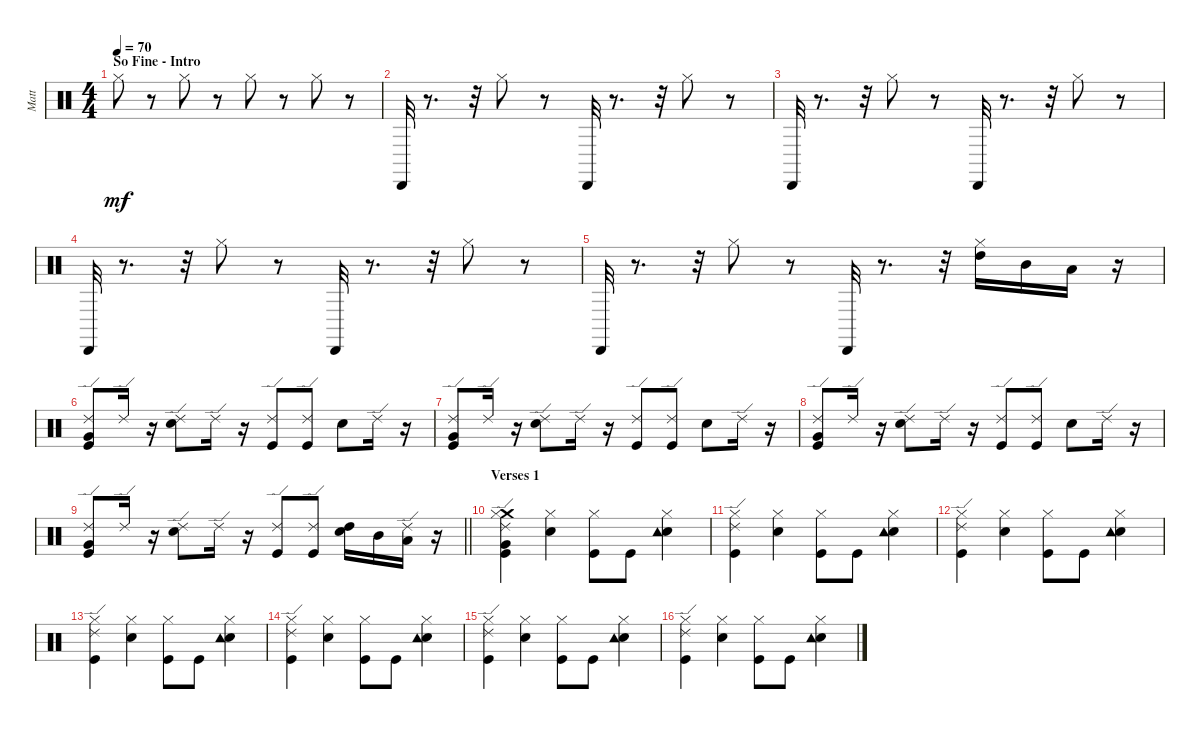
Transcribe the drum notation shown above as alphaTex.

\track ("Matt" "Matt") {instrument percussion}
\staff {score}
\articulation defaults
\ts (4 4)
\section ("" "So Fine - Intro")
\tempo 70
\clef neutral
\ks c "Hi-Hat (closed)".8{dy mf}
r.8 "Hi-Hat (closed)".8 r.8 "Hi-Hat (closed)".8 r.8 "Hi-Hat (closed)".8 r.8 |
"Cabasa (hit)".32 r.8{d} r.32 "Hi-Hat (closed)".8 r.8 "Cabasa (hit)".32 r.8{d} r.32 "Hi-Hat (closed)".8 r.8 |
"Cabasa (hit)".32 r.8{d} r.32 "Hi-Hat (closed)".8 r.8 "Cabasa (hit)".32 r.8{d} r.32 "Hi-Hat (closed)".8 r.8 |
"Cabasa (hit)".32 r.8{d} r.32 "Hi-Hat (closed)".8 r.8 "Cabasa (hit)".32 r.8{d} r.32 "Hi-Hat (closed)".8 r.8 |
"Cabasa (hit)".32 r.8{d} r.32 "Hi-Hat (closed)".8 r.8 "Cabasa (hit)".32 r.8{d} r.32 ("Hi-Hat (closed)" "High Tom (hit)").16 "Mid Tom (hit)".16 "Low Tom (hit)".16 r.16 |
("Ride (edge) 2" "Very Low Tom (hit)" "Kick (hit)").8 "Ride (edge) 2".16 r.16 ("Ride (edge) 2" "Electric Snare (hit)").8 "Ride (edge) 2".16 r.16 ("Ride (edge) 2" "Kick (hit)").8 ("Ride (edge) 2" "Kick (hit)").8 "Electric Snare (hit)".8 "Ride (edge) 2".16 r.16 |
("Ride (edge) 2" "Very Low Tom (hit)" "Kick (hit)").8 "Ride (edge) 2".16 r.16 ("Ride (edge) 2" "Electric Snare (hit)").8 "Ride (edge) 2".16 r.16 ("Ride (edge) 2" "Kick (hit)").8 ("Ride (edge) 2" "Kick (hit)").8 "Electric Snare (hit)".8 "Ride (edge) 2".16 r.16 |
("Ride (edge) 2" "Very Low Tom (hit)" "Kick (hit)").8 "Ride (edge) 2".16 r.16 ("Ride (edge) 2" "Electric Snare (hit)").8 "Ride (edge) 2".16 r.16 ("Ride (edge) 2" "Kick (hit)").8 ("Ride (edge) 2" "Kick (hit)").8 "Electric Snare (hit)".8 "Ride (edge) 2".16 r.16 |
\barLineRight lightlight
("Ride (edge) 2" "Very Low Tom (hit)" "Kick (hit)").8 "Ride (edge) 2".16 r.16 ("Ride (edge) 2" "Electric Snare (hit)").8 "Ride (edge) 2".16 r.16 ("Ride (edge) 2" "Kick (hit)").8 ("Ride (edge) 2" "Kick (hit)").8 ("Electric Snare (hit)" "High Tom (hit)").16 "Mid Tom (hit)".16 ("Low Tom (hit)" "Ride (edge) 2").16 r.16 |
\section ("" "Verses 1")
("Crash medium (hit)" "Very Low Tom (hit)" "Ride (edge) 2" "Hi-Hat (closed)" "Kick (hit)").4 ("Hi-Hat (closed)" "Electric Snare (hit)").4 ("Hi-Hat (closed)" "Kick (hit)").8 "Kick (hit)".8 ("Electric Snare (hit)" "Tambourine (hit)" "Hi-Hat (closed)").4 |
("Ride (edge) 2" "Hi-Hat (closed)" "Kick (hit)").4 ("Hi-Hat (closed)" "Electric Snare (hit)").4 ("Hi-Hat (closed)" "Kick (hit)").8 "Kick (hit)".8 ("Electric Snare (hit)" "Tambourine (hit)" "Hi-Hat (closed)").4 |
("Ride (edge) 2" "Hi-Hat (closed)" "Kick (hit)").4 ("Hi-Hat (closed)" "Electric Snare (hit)").4 ("Hi-Hat (closed)" "Kick (hit)").8 "Kick (hit)".8 ("Electric Snare (hit)" "Tambourine (hit)" "Hi-Hat (closed)").4 |
("Ride (edge) 2" "Hi-Hat (closed)" "Kick (hit)").4 ("Hi-Hat (closed)" "Electric Snare (hit)").4 ("Hi-Hat (closed)" "Kick (hit)").8 "Kick (hit)".8 ("Electric Snare (hit)" "Tambourine (hit)" "Hi-Hat (closed)").4 |
("Ride (edge) 2" "Hi-Hat (closed)" "Kick (hit)").4 ("Hi-Hat (closed)" "Electric Snare (hit)").4 ("Hi-Hat (closed)" "Kick (hit)").8 "Kick (hit)".8 ("Electric Snare (hit)" "Tambourine (hit)" "Hi-Hat (closed)").4 |
("Ride (edge) 2" "Hi-Hat (closed)" "Kick (hit)").4 ("Hi-Hat (closed)" "Electric Snare (hit)").4 ("Hi-Hat (closed)" "Kick (hit)").8 "Kick (hit)".8 ("Electric Snare (hit)" "Tambourine (hit)" "Hi-Hat (closed)").4 |
("Ride (edge) 2" "Hi-Hat (closed)" "Kick (hit)").4 ("Hi-Hat (closed)" "Electric Snare (hit)").4 ("Hi-Hat (closed)" "Kick (hit)").8 "Kick (hit)".8 ("Electric Snare (hit)" "Tambourine (hit)" "Hi-Hat (closed)").4
